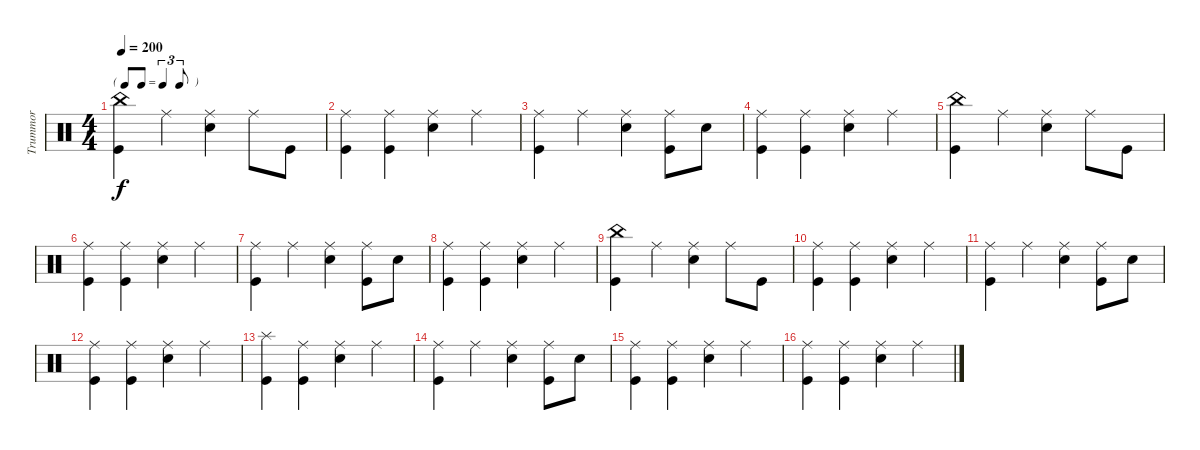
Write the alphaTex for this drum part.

\track ("Trummor" "Trummor") {instrument percussion}
\staff {score}
\articulation defaults
\ts (4 4)
\tf triplet8th
\tempo 200
\clef neutral
\ks c
("China (hit)" "Kick (hit)").4{dy f} "Ride (middle)".4 ("Ride (middle)" "Snare (hit) 2").4 "Ride (middle)".8 "Kick (hit)".8 |
("Ride (middle)" "Kick (hit)").4 ("Ride (middle)" "Kick (hit)").4 ("Ride (middle)" "Snare (hit) 2").4 "Ride (middle)".4 |
("Ride (middle)" "Kick (hit)").4 "Ride (middle)".4 ("Ride (middle)" "Snare (hit) 2").4 ("Ride (middle)" "Kick (hit)").8 "Snare (hit) 2".8 |
("Ride (middle)" "Kick (hit)").4 ("Ride (middle)" "Kick (hit)").4 ("Ride (middle)" "Snare (hit) 2").4 "Ride (middle)".4 |
("China (hit)" "Kick (hit)").4 "Ride (middle)".4 ("Ride (middle)" "Snare (hit) 2").4 "Ride (middle)".8 "Kick (hit)".8 |
("Ride (middle)" "Kick (hit)").4 ("Ride (middle)" "Kick (hit)").4 ("Ride (middle)" "Snare (hit) 2").4 "Ride (middle)".4 |
("Ride (middle)" "Kick (hit)").4 "Ride (middle)".4 ("Ride (middle)" "Snare (hit) 2").4 ("Ride (middle)" "Kick (hit)").8 "Snare (hit) 2".8 |
("Ride (middle)" "Kick (hit)").4 ("Ride (middle)" "Kick (hit)").4 ("Ride (middle)" "Snare (hit) 2").4 "Ride (middle)".4 |
("China (hit)" "Kick (hit)").4 "Ride (middle)".4 ("Ride (middle)" "Snare (hit) 2").4 "Ride (middle)".8 "Kick (hit)".8 |
("Ride (middle)" "Kick (hit)").4 ("Ride (middle)" "Kick (hit)").4 ("Ride (middle)" "Snare (hit) 2").4 "Ride (middle)".4 |
("Ride (middle)" "Kick (hit)").4 "Ride (middle)".4 ("Ride (middle)" "Snare (hit) 2").4 ("Ride (middle)" "Kick (hit)").8 "Snare (hit) 2".8 |
("Ride (middle)" "Kick (hit)").4 ("Ride (middle)" "Kick (hit)").4 ("Ride (middle)" "Snare (hit) 2").4 "Ride (middle)".4 |
("Splash (hit)" "Kick (hit)").4 ("Ride (middle)" "Kick (hit)").4 ("Ride (middle)" "Snare (hit) 2").4 "Ride (middle)".4 |
("Ride (middle)" "Kick (hit)").4 "Ride (middle)".4 ("Ride (middle)" "Snare (hit) 2").4 ("Ride (middle)" "Kick (hit)").8 "Snare (hit) 2".8 |
("Ride (middle)" "Kick (hit)").4 ("Ride (middle)" "Kick (hit)").4 ("Ride (middle)" "Snare (hit) 2").4 "Ride (middle)".4 |
("Ride (middle)" "Kick (hit)").4 ("Ride (middle)" "Kick (hit)").4 ("Ride (middle)" "Snare (hit) 2").4 "Ride (middle)".4
